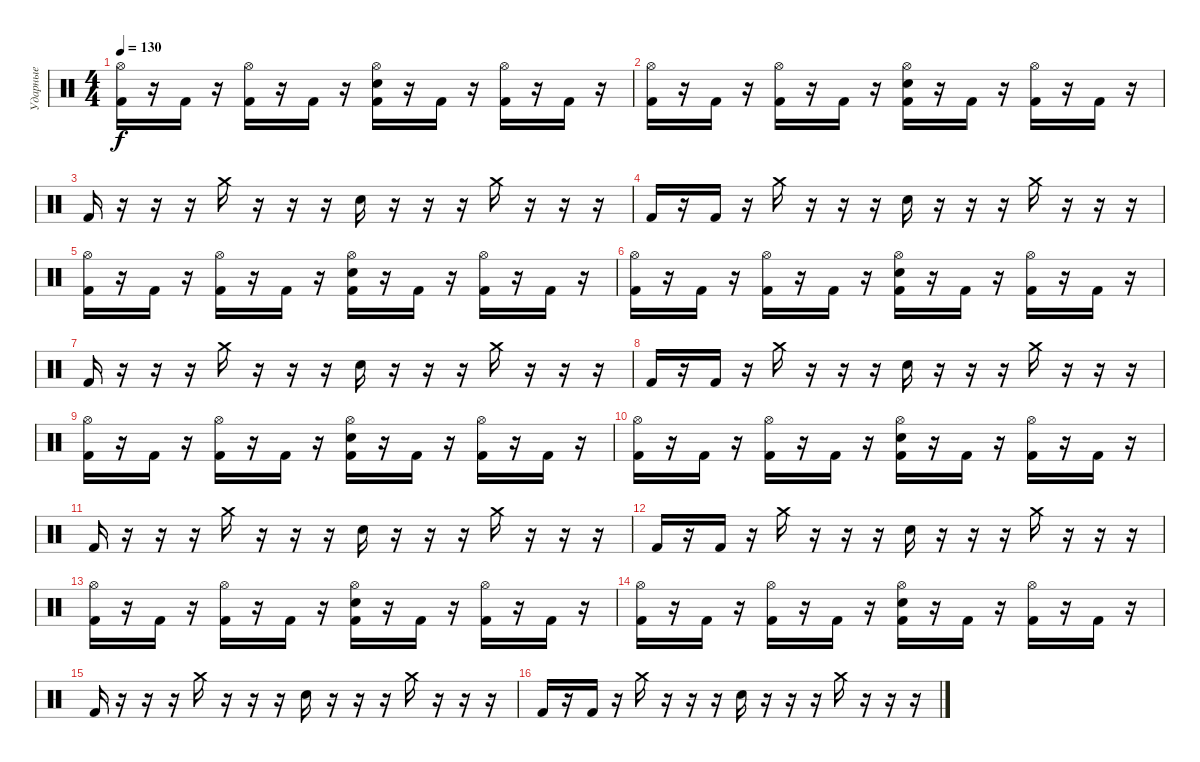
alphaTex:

\track ("Ударные" "Ударные") {instrument percussion}
\staff {score}
\articulation defaults
\ts (4 4)
\tempo 130
\clef neutral
\ks c
("Hi-Hat (open)" "Kick (hit) 2").16{dy f} r.16 "Kick (hit) 2".16 r.16 ("Hi-Hat (open)" "Kick (hit) 2").16 r.16 "Kick (hit) 2".16 r.16 ("Hi-Hat (open)" "Electric Snare (hit)" "Kick (hit) 2").16 r.16 "Kick (hit) 2".16 r.16 ("Hi-Hat (open)" "Kick (hit) 2").16 r.16 "Kick (hit) 2".16 r.16 |
("Hi-Hat (open)" "Kick (hit) 2").16 r.16 "Kick (hit) 2".16 r.16 ("Hi-Hat (open)" "Kick (hit) 2").16 r.16 "Kick (hit) 2".16 r.16 ("Hi-Hat (open)" "Electric Snare (hit)" "Kick (hit) 2").16 r.16 "Kick (hit) 2".16 r.16 ("Hi-Hat (open)" "Kick (hit) 2").16 r.16 "Kick (hit) 2".16 r.16 |
"Kick (hit) 2".16 r.16 r.16 r.16 "Crash medium (hit)".16 r.16 r.16 r.16 "Electric Snare (hit)".16 r.16 r.16 r.16 "Crash medium (hit)".16 r.16 r.16 r.16 |
"Kick (hit) 2".16 r.16 "Kick (hit) 2".16 r.16 "Crash medium (hit)".16 r.16 r.16 r.16 "Electric Snare (hit)".16 r.16 r.16 r.16 "Crash medium (hit)".16 r.16 r.16 r.16 |
("Hi-Hat (open)" "Kick (hit) 2").16 r.16 "Kick (hit) 2".16 r.16 ("Hi-Hat (open)" "Kick (hit) 2").16 r.16 "Kick (hit) 2".16 r.16 ("Hi-Hat (open)" "Electric Snare (hit)" "Kick (hit) 2").16 r.16 "Kick (hit) 2".16 r.16 ("Hi-Hat (open)" "Kick (hit) 2").16 r.16 "Kick (hit) 2".16 r.16 |
("Hi-Hat (open)" "Kick (hit) 2").16 r.16 "Kick (hit) 2".16 r.16 ("Hi-Hat (open)" "Kick (hit) 2").16 r.16 "Kick (hit) 2".16 r.16 ("Hi-Hat (open)" "Electric Snare (hit)" "Kick (hit) 2").16 r.16 "Kick (hit) 2".16 r.16 ("Hi-Hat (open)" "Kick (hit) 2").16 r.16 "Kick (hit) 2".16 r.16 |
"Kick (hit) 2".16 r.16 r.16 r.16 "Crash medium (hit)".16 r.16 r.16 r.16 "Electric Snare (hit)".16 r.16 r.16 r.16 "Crash medium (hit)".16 r.16 r.16 r.16 |
"Kick (hit) 2".16 r.16 "Kick (hit) 2".16 r.16 "Crash medium (hit)".16 r.16 r.16 r.16 "Electric Snare (hit)".16 r.16 r.16 r.16 "Crash medium (hit)".16 r.16 r.16 r.16 |
("Hi-Hat (open)" "Kick (hit) 2").16 r.16 "Kick (hit) 2".16 r.16 ("Hi-Hat (open)" "Kick (hit) 2").16 r.16 "Kick (hit) 2".16 r.16 ("Hi-Hat (open)" "Electric Snare (hit)" "Kick (hit) 2").16 r.16 "Kick (hit) 2".16 r.16 ("Hi-Hat (open)" "Kick (hit) 2").16 r.16 "Kick (hit) 2".16 r.16 |
("Hi-Hat (open)" "Kick (hit) 2").16 r.16 "Kick (hit) 2".16 r.16 ("Hi-Hat (open)" "Kick (hit) 2").16 r.16 "Kick (hit) 2".16 r.16 ("Hi-Hat (open)" "Electric Snare (hit)" "Kick (hit) 2").16 r.16 "Kick (hit) 2".16 r.16 ("Hi-Hat (open)" "Kick (hit) 2").16 r.16 "Kick (hit) 2".16 r.16 |
"Kick (hit) 2".16 r.16 r.16 r.16 "Crash medium (hit)".16 r.16 r.16 r.16 "Electric Snare (hit)".16 r.16 r.16 r.16 "Crash medium (hit)".16 r.16 r.16 r.16 |
"Kick (hit) 2".16 r.16 "Kick (hit) 2".16 r.16 "Crash medium (hit)".16 r.16 r.16 r.16 "Electric Snare (hit)".16 r.16 r.16 r.16 "Crash medium (hit)".16 r.16 r.16 r.16 |
("Hi-Hat (open)" "Kick (hit) 2").16 r.16 "Kick (hit) 2".16 r.16 ("Hi-Hat (open)" "Kick (hit) 2").16 r.16 "Kick (hit) 2".16 r.16 ("Hi-Hat (open)" "Electric Snare (hit)" "Kick (hit) 2").16 r.16 "Kick (hit) 2".16 r.16 ("Hi-Hat (open)" "Kick (hit) 2").16 r.16 "Kick (hit) 2".16 r.16 |
("Hi-Hat (open)" "Kick (hit) 2").16 r.16 "Kick (hit) 2".16 r.16 ("Hi-Hat (open)" "Kick (hit) 2").16 r.16 "Kick (hit) 2".16 r.16 ("Hi-Hat (open)" "Electric Snare (hit)" "Kick (hit) 2").16 r.16 "Kick (hit) 2".16 r.16 ("Hi-Hat (open)" "Kick (hit) 2").16 r.16 "Kick (hit) 2".16 r.16 |
"Kick (hit) 2".16 r.16 r.16 r.16 "Crash medium (hit)".16 r.16 r.16 r.16 "Electric Snare (hit)".16 r.16 r.16 r.16 "Crash medium (hit)".16 r.16 r.16 r.16 |
"Kick (hit) 2".16 r.16 "Kick (hit) 2".16 r.16 "Crash medium (hit)".16 r.16 r.16 r.16 "Electric Snare (hit)".16 r.16 r.16 r.16 "Crash medium (hit)".16 r.16 r.16 r.16
